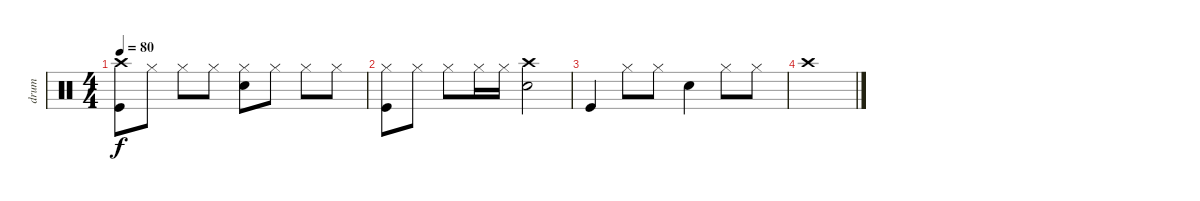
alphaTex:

\track ("drum" "drum") {instrument percussion}
\staff {score}
\articulation defaults
\ts (4 4)
\tempo 80
\clef neutral
\ks c
("Crash high (hit)" "Kick (hit)").8{dy f} "Hi-Hat (closed)".8 "Hi-Hat (closed)".8 "Hi-Hat (closed)".8 ("Hi-Hat (closed)" "Snare (hit) 2").8 "Hi-Hat (closed)".8 "Hi-Hat (closed)".8 "Hi-Hat (closed)".8 |
("Hi-Hat (closed)" "Kick (hit)").8 "Hi-Hat (closed)".8 "Hi-Hat (closed)".8 "Hi-Hat (closed)".16 "Hi-Hat (closed)".16 ("Crash high (hit)" "Snare (hit) 2").2 |
"Kick (hit)".4 "Hi-Hat (closed)".8 "Hi-Hat (closed)".8 "Snare (hit) 2".4 "Hi-Hat (closed)".8 "Hi-Hat (closed)".8 |
"Crash high (hit)".1
